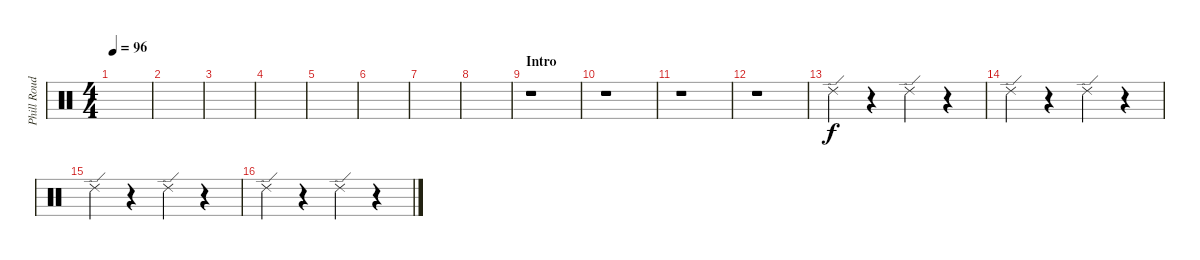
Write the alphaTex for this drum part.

\track ("Phill Roud" "Phill Roud") {instrument percussion}
\staff {score}
\articulation defaults
\ts (4 4)
\tempo 96
\clef neutral
\ks c
|
|
|
|
|
|
|
|
\section ("" "Intro")
r.1 |
r.1 |
r.1 |
r.1 |
"Ride (edge) 2".4 r.4 "Ride (edge) 2".4 r.4 |
"Ride (edge) 2".4 r.4 "Ride (edge) 2".4 r.4 |
"Ride (edge) 2".4 r.4 "Ride (edge) 2".4 r.4 |
"Ride (edge) 2".4 r.4 "Ride (edge) 2".4 r.4
